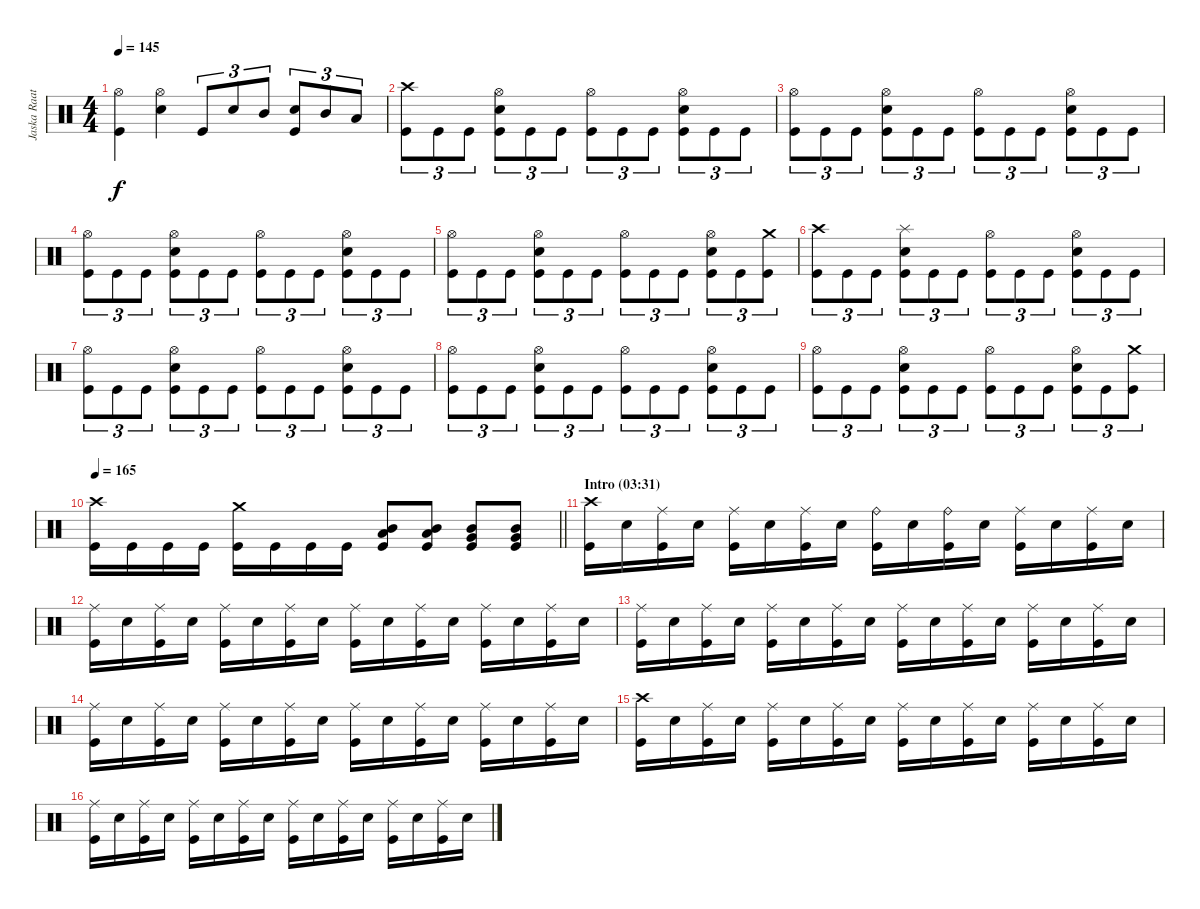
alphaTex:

\track ("Jaska Raatikainen" "Jaska Raat") {instrument percussion}
\staff {score}
\articulation defaults
\ts (4 4)
\tempo 145
\clef neutral
\ks c
("Hi-Hat (open)" "Kick (hit)").4{dy f} ("Hi-Hat (open)" "Electric Snare (hit)").4 "Kick (hit)".8{tu (3 2)} "Electric Snare (hit)".8{tu (3 2)} "Mid Tom (hit)".8{tu (3 2)} ("Electric Snare (hit)" "Kick (hit)").8{tu (3 2)} "Mid Tom (hit)".8{tu (3 2)} "Low Tom (hit)".8{tu (3 2)} |
("Crash high (hit)" "Kick (hit)").8{tu (3 2)} "Kick (hit)".8{tu (3 2)} "Kick (hit)".8{tu (3 2)} ("Hi-Hat (open)" "Electric Snare (hit)" "Kick (hit)").8{tu (3 2)} "Kick (hit)".8{tu (3 2)} "Kick (hit)".8{tu (3 2)} ("Hi-Hat (open)" "Kick (hit)").8{tu (3 2)} "Kick (hit)".8{tu (3 2)} "Kick (hit)".8{tu (3 2)} ("Hi-Hat (open)" "Electric Snare (hit)" "Kick (hit)").8{tu (3 2)} "Kick (hit)".8{tu (3 2)} "Kick (hit)".8{tu (3 2)} |
("Hi-Hat (open)" "Kick (hit)").8{tu (3 2)} "Kick (hit)".8{tu (3 2)} "Kick (hit)".8{tu (3 2)} ("Hi-Hat (open)" "Electric Snare (hit)" "Kick (hit)").8{tu (3 2)} "Kick (hit)".8{tu (3 2)} "Kick (hit)".8{tu (3 2)} ("Hi-Hat (open)" "Kick (hit)").8{tu (3 2)} "Kick (hit)".8{tu (3 2)} "Kick (hit)".8{tu (3 2)} ("Hi-Hat (open)" "Electric Snare (hit)" "Kick (hit)").8{tu (3 2)} "Kick (hit)".8{tu (3 2)} "Kick (hit)".8{tu (3 2)} |
("Hi-Hat (open)" "Kick (hit)").8{tu (3 2)} "Kick (hit)".8{tu (3 2)} "Kick (hit)".8{tu (3 2)} ("Hi-Hat (open)" "Electric Snare (hit)" "Kick (hit)").8{tu (3 2)} "Kick (hit)".8{tu (3 2)} "Kick (hit)".8{tu (3 2)} ("Hi-Hat (open)" "Kick (hit)").8{tu (3 2)} "Kick (hit)".8{tu (3 2)} "Kick (hit)".8{tu (3 2)} ("Hi-Hat (open)" "Electric Snare (hit)" "Kick (hit)").8{tu (3 2)} "Kick (hit)".8{tu (3 2)} "Kick (hit)".8{tu (3 2)} |
("Hi-Hat (open)" "Kick (hit)").8{tu (3 2)} "Kick (hit)".8{tu (3 2)} "Kick (hit)".8{tu (3 2)} ("Hi-Hat (open)" "Electric Snare (hit)" "Kick (hit)").8{tu (3 2)} "Kick (hit)".8{tu (3 2)} "Kick (hit)".8{tu (3 2)} ("Hi-Hat (open)" "Kick (hit)").8{tu (3 2)} "Kick (hit)".8{tu (3 2)} "Kick (hit)".8{tu (3 2)} ("Hi-Hat (open)" "Electric Snare (hit)" "Kick (hit)").8{tu (3 2)} "Kick (hit)".8{tu (3 2)} ("Crash medium (hit)" "Kick (hit)").8{tu (3 2)} |
("Crash high (hit)" "Kick (hit)").8{tu (3 2)} "Kick (hit)".8{tu (3 2)} "Kick (hit)".8{tu (3 2)} ("Splash (hit)" "Electric Snare (hit)" "Kick (hit)").8{tu (3 2)} "Kick (hit)".8{tu (3 2)} "Kick (hit)".8{tu (3 2)} ("Hi-Hat (open)" "Kick (hit)").8{tu (3 2)} "Kick (hit)".8{tu (3 2)} "Kick (hit)".8{tu (3 2)} ("Hi-Hat (open)" "Electric Snare (hit)" "Kick (hit)").8{tu (3 2)} "Kick (hit)".8{tu (3 2)} "Kick (hit)".8{tu (3 2)} |
("Hi-Hat (open)" "Kick (hit)").8{tu (3 2)} "Kick (hit)".8{tu (3 2)} "Kick (hit)".8{tu (3 2)} ("Hi-Hat (open)" "Electric Snare (hit)" "Kick (hit)").8{tu (3 2)} "Kick (hit)".8{tu (3 2)} "Kick (hit)".8{tu (3 2)} ("Hi-Hat (open)" "Kick (hit)").8{tu (3 2)} "Kick (hit)".8{tu (3 2)} "Kick (hit)".8{tu (3 2)} ("Hi-Hat (open)" "Electric Snare (hit)" "Kick (hit)").8{tu (3 2)} "Kick (hit)".8{tu (3 2)} "Kick (hit)".8{tu (3 2)} |
("Hi-Hat (open)" "Kick (hit)").8{tu (3 2)} "Kick (hit)".8{tu (3 2)} "Kick (hit)".8{tu (3 2)} ("Hi-Hat (open)" "Electric Snare (hit)" "Kick (hit)").8{tu (3 2)} "Kick (hit)".8{tu (3 2)} "Kick (hit)".8{tu (3 2)} ("Hi-Hat (open)" "Kick (hit)").8{tu (3 2)} "Kick (hit)".8{tu (3 2)} "Kick (hit)".8{tu (3 2)} ("Hi-Hat (open)" "Electric Snare (hit)" "Kick (hit)").8{tu (3 2)} "Kick (hit)".8{tu (3 2)} "Kick (hit)".8{tu (3 2)} |
("Hi-Hat (open)" "Kick (hit)").8{tu (3 2)} "Kick (hit)".8{tu (3 2)} "Kick (hit)".8{tu (3 2)} ("Hi-Hat (open)" "Electric Snare (hit)" "Kick (hit)").8{tu (3 2)} "Kick (hit)".8{tu (3 2)} "Kick (hit)".8{tu (3 2)} ("Hi-Hat (open)" "Kick (hit)").8{tu (3 2)} "Kick (hit)".8{tu (3 2)} "Kick (hit)".8{tu (3 2)} ("Hi-Hat (open)" "Electric Snare (hit)" "Kick (hit)").8{tu (3 2)} "Kick (hit)".8{tu (3 2)} ("Crash medium (hit)" "Kick (hit)").8{tu (3 2)} |
\tempo 165
\barLineRight lightlight
("Crash high (hit)" "Kick (hit)").16 "Kick (hit)".16 "Kick (hit)".16 "Kick (hit)".16 ("Crash medium (hit)" "Kick (hit)").16 "Kick (hit)".16 "Kick (hit)".16 "Kick (hit)".16 ("Mid Tom (hit)" "Low Tom (hit)" "Kick (hit)").8 ("Mid Tom (hit)" "Low Tom (hit)" "Kick (hit)").8 ("Mid Tom (hit)" "Very Low Tom (hit)" "Kick (hit)").8 ("Mid Tom (hit)" "Very Low Tom (hit)" "Kick (hit)").8 |
\section ("" "Intro (03:31)")
("Crash high (hit)" "Kick (hit)").16 "Electric Snare (hit)".16 ("Ride (middle)" "Kick (hit)").16 "Electric Snare (hit)".16 ("Ride (middle)" "Kick (hit)").16 "Electric Snare (hit)".16 ("Ride (middle)" "Kick (hit)").16 "Electric Snare (hit)".16 ("Ride (bell)" "Kick (hit)").16 "Electric Snare (hit)".16 ("Ride (bell)" "Kick (hit)").16 "Electric Snare (hit)".16 ("Ride (middle)" "Kick (hit)").16 "Electric Snare (hit)".16 ("Ride (middle)" "Kick (hit)").16 "Electric Snare (hit)".16 |
("Ride (middle)" "Kick (hit)").16 "Electric Snare (hit)".16 ("Ride (middle)" "Kick (hit)").16 "Electric Snare (hit)".16 ("Ride (middle)" "Kick (hit)").16 "Electric Snare (hit)".16 ("Ride (middle)" "Kick (hit)").16 "Electric Snare (hit)".16 ("Ride (middle)" "Kick (hit)").16 "Electric Snare (hit)".16 ("Ride (middle)" "Kick (hit)").16 "Electric Snare (hit)".16 ("Ride (middle)" "Kick (hit)").16 "Electric Snare (hit)".16 ("Ride (middle)" "Kick (hit)").16 "Electric Snare (hit)".16 |
("Ride (middle)" "Kick (hit)").16 "Electric Snare (hit)".16 ("Ride (middle)" "Kick (hit)").16 "Electric Snare (hit)".16 ("Ride (middle)" "Kick (hit)").16 "Electric Snare (hit)".16 ("Ride (middle)" "Kick (hit)").16 "Electric Snare (hit)".16 ("Ride (middle)" "Kick (hit)").16 "Electric Snare (hit)".16 ("Ride (middle)" "Kick (hit)").16 "Electric Snare (hit)".16 ("Ride (middle)" "Kick (hit)").16 "Electric Snare (hit)".16 ("Ride (middle)" "Kick (hit)").16 "Electric Snare (hit)".16 |
("Ride (middle)" "Kick (hit)").16 "Electric Snare (hit)".16 ("Ride (middle)" "Kick (hit)").16 "Electric Snare (hit)".16 ("Ride (middle)" "Kick (hit)").16 "Electric Snare (hit)".16 ("Ride (middle)" "Kick (hit)").16 "Electric Snare (hit)".16 ("Ride (middle)" "Kick (hit)").16 "Electric Snare (hit)".16 ("Ride (middle)" "Kick (hit)").16 "Electric Snare (hit)".16 ("Ride (middle)" "Kick (hit)").16 "Electric Snare (hit)".16 ("Ride (middle)" "Kick (hit)").16 "Electric Snare (hit)".16 |
("Crash high (hit)" "Kick (hit)").16 "Electric Snare (hit)".16 ("Ride (middle)" "Kick (hit)").16 "Electric Snare (hit)".16 ("Ride (middle)" "Kick (hit)").16 "Electric Snare (hit)".16 ("Ride (middle)" "Kick (hit)").16 "Electric Snare (hit)".16 ("Ride (middle)" "Kick (hit)").16 "Electric Snare (hit)".16 ("Ride (middle)" "Kick (hit)").16 "Electric Snare (hit)".16 ("Ride (middle)" "Kick (hit)").16 "Electric Snare (hit)".16 ("Ride (middle)" "Kick (hit)").16 "Electric Snare (hit)".16 |
("Ride (middle)" "Kick (hit)").16 "Electric Snare (hit)".16 ("Ride (middle)" "Kick (hit)").16 "Electric Snare (hit)".16 ("Ride (middle)" "Kick (hit)").16 "Electric Snare (hit)".16 ("Ride (middle)" "Kick (hit)").16 "Electric Snare (hit)".16 ("Ride (middle)" "Kick (hit)").16 "Electric Snare (hit)".16 ("Ride (middle)" "Kick (hit)").16 "Electric Snare (hit)".16 ("Ride (middle)" "Kick (hit)").16 "Electric Snare (hit)".16 ("Ride (middle)" "Kick (hit)").16 "Electric Snare (hit)".16
